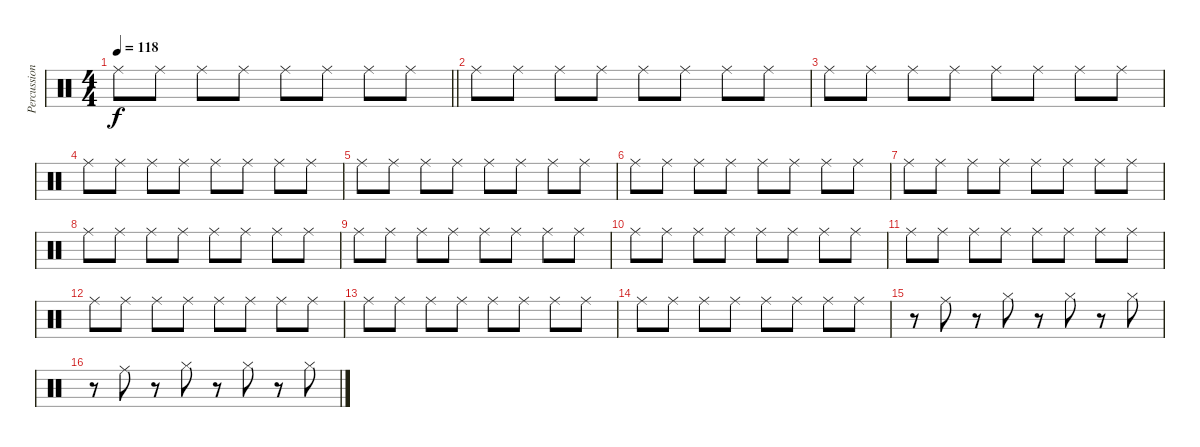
\track ("Percussion" "Percussion") {instrument percussion}
\staff {score}
\articulation defaults
\ts (4 4)
\tempo 118
\clef neutral
\barLineRight lightlight
\ks c "Ride (middle)".8{dy f} "Ride (middle)".8 "Ride (middle)".8 "Ride (middle)".8 "Ride (middle)".8 "Ride (middle)".8 "Ride (middle)".8 "Ride (middle)".8
|
"Ride (middle)".8 "Ride (middle)".8 "Ride (middle)".8 "Ride (middle)".8 "Ride (middle)".8 "Ride (middle)".8 "Ride (middle)".8 "Ride (middle)".8 |
"Ride (middle)".8 "Ride (middle)".8 "Ride (middle)".8 "Ride (middle)".8 "Ride (middle)".8 "Ride (middle)".8 "Ride (middle)".8 "Ride (middle)".8 |
"Ride (middle)".8 "Ride (middle)".8 "Ride (middle)".8 "Ride (middle)".8 "Ride (middle)".8 "Ride (middle)".8 "Ride (middle)".8 "Ride (middle)".8 |
"Ride (middle)".8 "Ride (middle)".8 "Ride (middle)".8 "Ride (middle)".8 "Ride (middle)".8 "Ride (middle)".8 "Ride (middle)".8 "Ride (middle)".8 |
"Ride (middle)".8 "Ride (middle)".8 "Ride (middle)".8 "Ride (middle)".8 "Ride (middle)".8 "Ride (middle)".8 "Ride (middle)".8 "Ride (middle)".8 |
"Ride (middle)".8 "Ride (middle)".8 "Ride (middle)".8 "Ride (middle)".8 "Ride (middle)".8 "Ride (middle)".8 "Ride (middle)".8 "Ride (middle)".8 |
"Ride (middle)".8 "Ride (middle)".8 "Ride (middle)".8 "Ride (middle)".8 "Ride (middle)".8 "Ride (middle)".8 "Ride (middle)".8 "Ride (middle)".8 |
"Ride (middle)".8 "Ride (middle)".8 "Ride (middle)".8 "Ride (middle)".8 "Ride (middle)".8 "Ride (middle)".8 "Ride (middle)".8 "Ride (middle)".8 |
"Ride (middle)".8 "Ride (middle)".8 "Ride (middle)".8 "Ride (middle)".8 "Ride (middle)".8 "Ride (middle)".8 "Ride (middle)".8 "Ride (middle)".8 |
"Ride (middle)".8 "Ride (middle)".8 "Ride (middle)".8 "Ride (middle)".8 "Ride (middle)".8 "Ride (middle)".8 "Ride (middle)".8 "Ride (middle)".8 |
"Ride (middle)".8 "Ride (middle)".8 "Ride (middle)".8 "Ride (middle)".8 "Ride (middle)".8 "Ride (middle)".8 "Ride (middle)".8 "Ride (middle)".8 |
"Ride (middle)".8 "Ride (middle)".8 "Ride (middle)".8 "Ride (middle)".8 "Ride (middle)".8 "Ride (middle)".8 "Ride (middle)".8 "Ride (middle)".8 |
"Ride (middle)".8 "Ride (middle)".8 "Ride (middle)".8 "Ride (middle)".8 "Ride (middle)".8 "Ride (middle)".8 "Ride (middle)".8 "Ride (middle)".8 |
r.8 "Ride (middle)".8 r.8 "Hi-Hat (closed)".8 r.8 "Hi-Hat (closed)".8 r.8 "Hi-Hat (closed)".8 |
r.8 "Ride (middle)".8 r.8 "Hi-Hat (closed)".8 r.8 "Hi-Hat (closed)".8 r.8 "Hi-Hat (closed)".8
